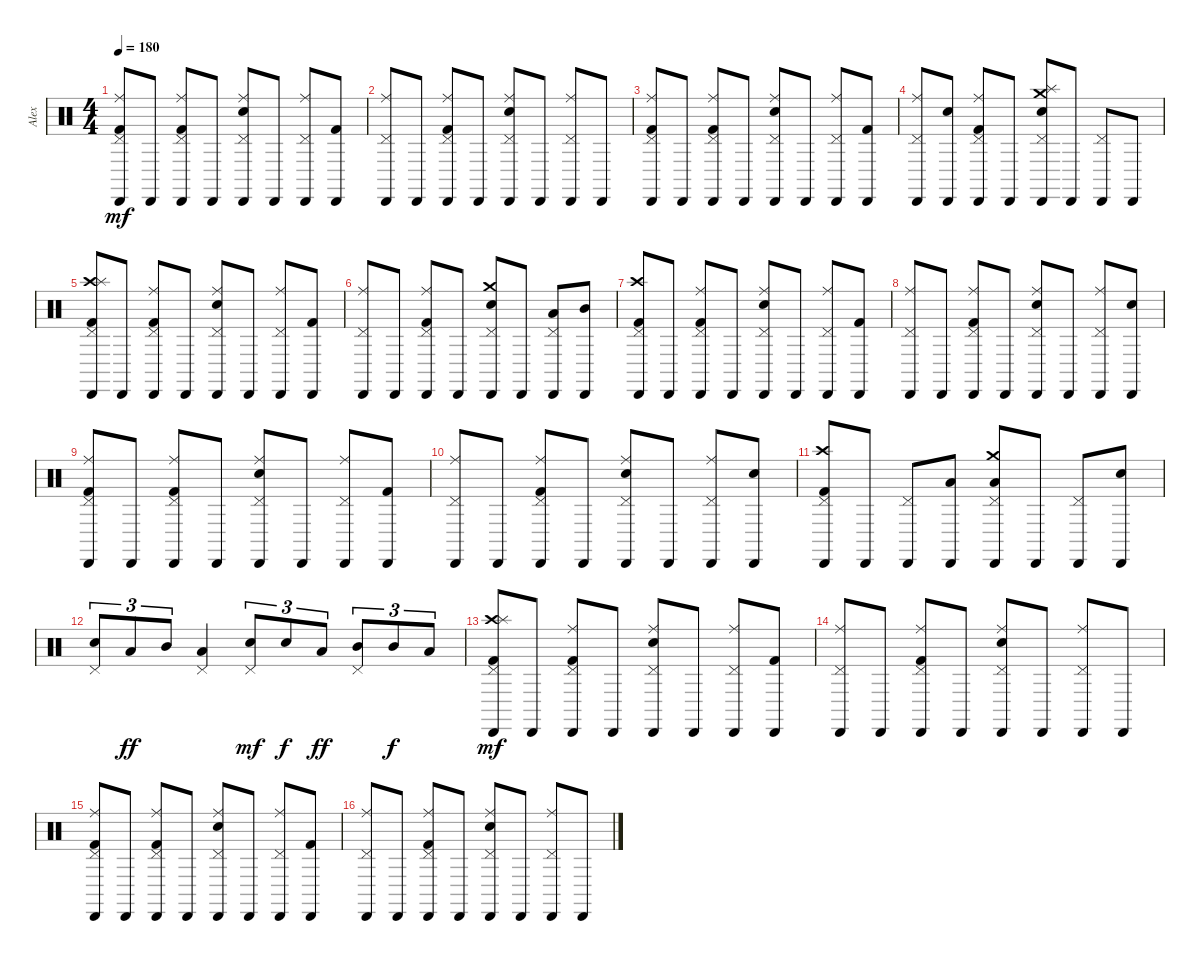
\track ("Alex" "Alex") {instrument percussion}
\staff {score}
\articulation defaults
\ts (4 4)
\tempo 180
\clef neutral
\ks c
("Ride (middle)" "Pedal Hi-Hat (hit)" "Kick (hit) 2" "Cabasa (hit)").8{dy mf} "Cabasa (hit)".8 ("Ride (middle)" "Pedal Hi-Hat (hit)" "Kick (hit) 2" "Cabasa (hit)").8 "Cabasa (hit)".8 ("Ride (middle)" "Pedal Hi-Hat (hit)" "Snare (hit) 2" "Cabasa (hit)").8 "Cabasa (hit)".8 ("Ride (middle)" "Pedal Hi-Hat (hit)" "Cabasa (hit)").8 ("Kick (hit) 2" "Cabasa (hit)").8 |
("Ride (middle)" "Pedal Hi-Hat (hit)" "Cabasa (hit)").8 "Cabasa (hit)".8 ("Ride (middle)" "Pedal Hi-Hat (hit)" "Kick (hit) 2" "Cabasa (hit)").8 "Cabasa (hit)".8 ("Ride (middle)" "Pedal Hi-Hat (hit)" "Snare (hit) 2" "Cabasa (hit)").8 "Cabasa (hit)".8 ("Ride (middle)" "Pedal Hi-Hat (hit)" "Cabasa (hit)").8 "Cabasa (hit)".8 |
("Ride (middle)" "Pedal Hi-Hat (hit)" "Kick (hit) 2" "Cabasa (hit)").8 "Cabasa (hit)".8 ("Ride (middle)" "Pedal Hi-Hat (hit)" "Kick (hit) 2" "Cabasa (hit)").8 "Cabasa (hit)".8 ("Ride (middle)" "Pedal Hi-Hat (hit)" "Snare (hit) 2" "Cabasa (hit)").8 "Cabasa (hit)".8 ("Ride (middle)" "Pedal Hi-Hat (hit)" "Cabasa (hit)").8 ("Kick (hit) 2" "Cabasa (hit)").8 |
("Ride (middle)" "Pedal Hi-Hat (hit)" "Cabasa (hit)").8 ("Snare (hit) 2" "Cabasa (hit)").8 ("Ride (middle)" "Pedal Hi-Hat (hit)" "Kick (hit) 2" "Cabasa (hit)").8 "Cabasa (hit)".8 ("Crash medium (hit)" "Pedal Hi-Hat (hit)" "Splash (hit)" "Snare (hit) 2" "Cabasa (hit)").8 "Cabasa (hit)".8 ("Pedal Hi-Hat (hit)" "Cabasa (hit)").8 "Cabasa (hit)".8 |
("Crash high (hit)" "Pedal Hi-Hat (hit)" "Splash (hit)" "Kick (hit) 2" "Cabasa (hit)").8 "Cabasa (hit)".8 ("Ride (middle)" "Pedal Hi-Hat (hit)" "Kick (hit) 2" "Cabasa (hit)").8 "Cabasa (hit)".8 ("Ride (middle)" "Pedal Hi-Hat (hit)" "Snare (hit) 2" "Cabasa (hit)").8 "Cabasa (hit)".8 ("Ride (middle)" "Pedal Hi-Hat (hit)" "Cabasa (hit)").8 ("Kick (hit) 2" "Cabasa (hit)").8 |
("Ride (middle)" "Pedal Hi-Hat (hit)" "Cabasa (hit)").8 "Cabasa (hit)".8 ("Ride (middle)" "Pedal Hi-Hat (hit)" "Kick (hit) 2" "Cabasa (hit)").8 "Cabasa (hit)".8 ("Crash medium (hit)" "Pedal Hi-Hat (hit)" "Snare (hit) 2" "Cabasa (hit)").8 "Cabasa (hit)".8 ("Pedal Hi-Hat (hit)" "Low Tom (hit)" "Cabasa (hit)").8 ("Mid Tom (hit)" "Cabasa (hit)").8 |
("Crash high (hit)" "Pedal Hi-Hat (hit)" "Kick (hit) 2" "Cabasa (hit)").8 "Cabasa (hit)".8 ("Ride (middle)" "Pedal Hi-Hat (hit)" "Kick (hit) 2" "Cabasa (hit)").8 "Cabasa (hit)".8 ("Ride (middle)" "Pedal Hi-Hat (hit)" "Snare (hit) 2" "Cabasa (hit)").8 "Cabasa (hit)".8 ("Ride (middle)" "Pedal Hi-Hat (hit)" "Cabasa (hit)").8 ("Kick (hit) 2" "Cabasa (hit)").8 |
("Ride (middle)" "Pedal Hi-Hat (hit)" "Cabasa (hit)").8 "Cabasa (hit)".8 ("Ride (middle)" "Pedal Hi-Hat (hit)" "Kick (hit) 2" "Cabasa (hit)").8 "Cabasa (hit)".8 ("Ride (middle)" "Pedal Hi-Hat (hit)" "Snare (hit) 2" "Cabasa (hit)").8 "Cabasa (hit)".8 ("Ride (middle)" "Pedal Hi-Hat (hit)" "Cabasa (hit)").8 ("Snare (hit) 2" "Cabasa (hit)").8 |
("Ride (middle)" "Pedal Hi-Hat (hit)" "Kick (hit) 2" "Cabasa (hit)").8 "Cabasa (hit)".8 ("Ride (middle)" "Pedal Hi-Hat (hit)" "Kick (hit) 2" "Cabasa (hit)").8 "Cabasa (hit)".8 ("Ride (middle)" "Pedal Hi-Hat (hit)" "Snare (hit) 2" "Cabasa (hit)").8 "Cabasa (hit)".8 ("Ride (middle)" "Pedal Hi-Hat (hit)" "Cabasa (hit)").8 ("Kick (hit) 2" "Cabasa (hit)").8 |
("Ride (middle)" "Pedal Hi-Hat (hit)" "Cabasa (hit)").8 "Cabasa (hit)".8 ("Ride (middle)" "Pedal Hi-Hat (hit)" "Kick (hit) 2" "Cabasa (hit)").8 "Cabasa (hit)".8 ("Ride (middle)" "Pedal Hi-Hat (hit)" "Snare (hit) 2" "Cabasa (hit)").8 "Cabasa (hit)".8 ("Ride (middle)" "Pedal Hi-Hat (hit)" "Cabasa (hit)").8 ("Snare (hit) 2" "Cabasa (hit)").8 |
("Crash high (hit)" "Pedal Hi-Hat (hit)" "Kick (hit) 2" "Cabasa (hit)").8 "Cabasa (hit)".8 ("Pedal Hi-Hat (hit)" "Cabasa (hit)").8 ("Low Tom (hit)" "Cabasa (hit)").8 ("Crash medium (hit)" "Pedal Hi-Hat (hit)" "Low Tom (hit)" "Cabasa (hit)").8 "Cabasa (hit)".8 ("Pedal Hi-Hat (hit)" "Cabasa (hit)").8 ("Snare (hit) 2" "Cabasa (hit)").8 |
("Pedal Hi-Hat (hit)" "Snare (hit) 2").8{tu (3 2)} "Low Tom (hit)".8{tu (3 2) dy ff} "Mid Tom (hit)".8{tu (3 2)} ("Pedal Hi-Hat (hit)" "Low Tom (hit)").4 ("Pedal Hi-Hat (hit)" "Snare (hit) 2").8{tu (3 2) dy mf} "Snare (hit) 2".8{tu (3 2) dy f} "Low Tom (hit)".8{tu (3 2) dy ff} ("Pedal Hi-Hat (hit)" "Mid Tom (hit)").8{tu (3 2)} "Mid Tom (hit)".8{tu (3 2) dy f} "Low Tom (hit)".8{tu (3 2)} |
("Crash high (hit)" "Pedal Hi-Hat (hit)" "Splash (hit)" "Kick (hit) 2" "Cabasa (hit)").8{dy mf} "Cabasa (hit)".8 ("Ride (middle)" "Pedal Hi-Hat (hit)" "Kick (hit) 2" "Cabasa (hit)").8 "Cabasa (hit)".8 ("Ride (middle)" "Pedal Hi-Hat (hit)" "Snare (hit) 2" "Cabasa (hit)").8 "Cabasa (hit)".8 ("Ride (middle)" "Pedal Hi-Hat (hit)" "Cabasa (hit)").8 ("Kick (hit) 2" "Cabasa (hit)").8 |
("Ride (middle)" "Pedal Hi-Hat (hit)" "Cabasa (hit)").8 "Cabasa (hit)".8 ("Ride (middle)" "Pedal Hi-Hat (hit)" "Kick (hit) 2" "Cabasa (hit)").8 "Cabasa (hit)".8 ("Ride (middle)" "Pedal Hi-Hat (hit)" "Snare (hit) 2" "Cabasa (hit)").8 "Cabasa (hit)".8 ("Ride (middle)" "Pedal Hi-Hat (hit)" "Cabasa (hit)").8 "Cabasa (hit)".8 |
("Ride (middle)" "Pedal Hi-Hat (hit)" "Kick (hit) 2" "Cabasa (hit)").8 "Cabasa (hit)".8 ("Ride (middle)" "Pedal Hi-Hat (hit)" "Kick (hit) 2" "Cabasa (hit)").8 "Cabasa (hit)".8 ("Ride (middle)" "Pedal Hi-Hat (hit)" "Snare (hit) 2" "Cabasa (hit)").8 "Cabasa (hit)".8 ("Ride (middle)" "Pedal Hi-Hat (hit)" "Cabasa (hit)").8 ("Kick (hit) 2" "Cabasa (hit)").8 |
("Ride (middle)" "Pedal Hi-Hat (hit)" "Cabasa (hit)").8 "Cabasa (hit)".8 ("Ride (middle)" "Pedal Hi-Hat (hit)" "Kick (hit) 2" "Cabasa (hit)").8 "Cabasa (hit)".8 ("Ride (middle)" "Pedal Hi-Hat (hit)" "Snare (hit) 2" "Cabasa (hit)").8 "Cabasa (hit)".8 ("Ride (middle)" "Pedal Hi-Hat (hit)" "Cabasa (hit)").8 "Cabasa (hit)".8
